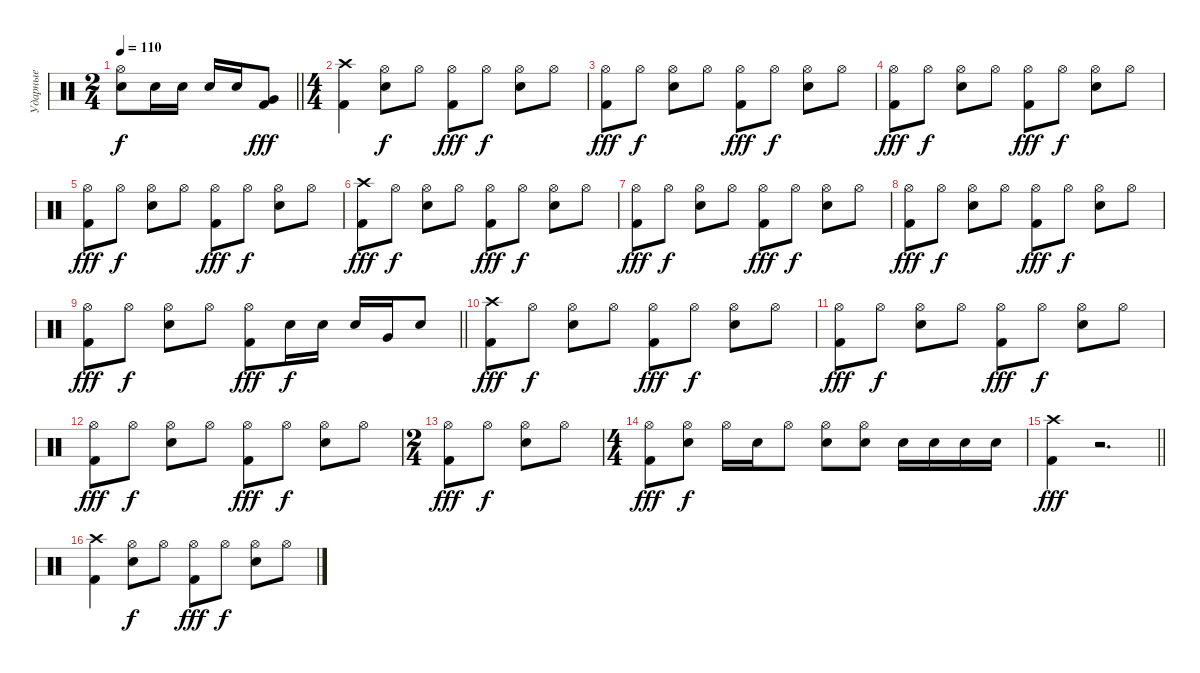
\track ("Ударные" "Ударные") {instrument percussion}
\staff
\articulation defaults
\ts (2 4)
\tempo 110
\clef neutral
\barLineRight lightlight
\ks c
("Hi-Hat (open)" "Snare (hit) 2").8{dy f} "Snare (hit) 2".16 "Snare (hit) 2".16 "Snare (hit) 2".16 "Snare (hit) 2".16 ("Kick (hit) 2" "Very Low Tom (hit)").8{dy fff} |
\ts (4 4)
("Kick (hit) 2" "Crash high (hit)").4 ("Snare (hit) 2" "Hi-Hat (open)").8{dy f} "Hi-Hat (open)".8 ("Kick (hit) 2" "Hi-Hat (open)").8{dy fff} "Hi-Hat (open)".8{dy f} ("Snare (hit) 2" "Hi-Hat (open)").8 "Hi-Hat (open)".8 |
("Kick (hit) 2" "Hi-Hat (open)").8{dy fff} "Hi-Hat (open)".8{dy f} ("Snare (hit) 2" "Hi-Hat (open)").8 "Hi-Hat (open)".8 ("Kick (hit) 2" "Hi-Hat (open)").8{dy fff} "Hi-Hat (open)".8{dy f} ("Snare (hit) 2" "Hi-Hat (open)").8 "Hi-Hat (open)".8 |
("Kick (hit) 2" "Hi-Hat (open)").8{dy fff} "Hi-Hat (open)".8{dy f} ("Snare (hit) 2" "Hi-Hat (open)").8 "Hi-Hat (open)".8 ("Kick (hit) 2" "Hi-Hat (open)").8{dy fff} "Hi-Hat (open)".8{dy f} ("Snare (hit) 2" "Hi-Hat (open)").8 "Hi-Hat (open)".8 |
("Kick (hit) 2" "Hi-Hat (open)").8{dy fff} "Hi-Hat (open)".8{dy f} ("Snare (hit) 2" "Hi-Hat (open)").8 "Hi-Hat (open)".8 ("Kick (hit) 2" "Hi-Hat (open)").8{dy fff} "Hi-Hat (open)".8{dy f} ("Snare (hit) 2" "Hi-Hat (open)").8 "Hi-Hat (open)".8 |
("Kick (hit) 2" "Crash high (hit)").8{dy fff} "Hi-Hat (open)".8{dy f} ("Snare (hit) 2" "Hi-Hat (open)").8 "Hi-Hat (open)".8 ("Kick (hit) 2" "Hi-Hat (open)").8{dy fff} "Hi-Hat (open)".8{dy f} ("Snare (hit) 2" "Hi-Hat (open)").8 "Hi-Hat (open)".8 |
("Kick (hit) 2" "Hi-Hat (open)").8{dy fff} "Hi-Hat (open)".8{dy f} ("Snare (hit) 2" "Hi-Hat (open)").8 "Hi-Hat (open)".8 ("Kick (hit) 2" "Hi-Hat (open)").8{dy fff} "Hi-Hat (open)".8{dy f} ("Snare (hit) 2" "Hi-Hat (open)").8 "Hi-Hat (open)".8 |
("Kick (hit) 2" "Hi-Hat (open)").8{dy fff} "Hi-Hat (open)".8{dy f} ("Snare (hit) 2" "Hi-Hat (open)").8 "Hi-Hat (open)".8 ("Kick (hit) 2" "Hi-Hat (open)").8{dy fff} "Hi-Hat (open)".8{dy f} ("Snare (hit) 2" "Hi-Hat (open)").8 "Hi-Hat (open)".8 |
\barLineRight lightlight
("Kick (hit) 2" "Hi-Hat (open)").8{dy fff} "Hi-Hat (open)".8{dy f} ("Snare (hit) 2" "Hi-Hat (open)").8 "Hi-Hat (open)".8 ("Kick (hit) 2" "Hi-Hat (open)").8{dy fff} "Snare (hit) 2".16{dy f} "Snare (hit) 2".16 "Snare (hit) 2".16 "Very Low Tom (hit)".16 "Snare (hit) 2".8 |
("Kick (hit) 2" "Crash high (hit)").8{dy fff} "Hi-Hat (open)".8{dy f} ("Snare (hit) 2" "Hi-Hat (open)").8 "Hi-Hat (open)".8 ("Kick (hit) 2" "Hi-Hat (open)").8{dy fff} "Hi-Hat (open)".8{dy f} ("Snare (hit) 2" "Hi-Hat (open)").8 "Hi-Hat (open)".8 |
("Kick (hit) 2" "Hi-Hat (open)").8{dy fff} "Hi-Hat (open)".8{dy f} ("Snare (hit) 2" "Hi-Hat (open)").8 "Hi-Hat (open)".8 ("Kick (hit) 2" "Hi-Hat (open)").8{dy fff} "Hi-Hat (open)".8{dy f} ("Snare (hit) 2" "Hi-Hat (open)").8 "Hi-Hat (open)".8 |
("Kick (hit) 2" "Hi-Hat (open)").8{dy fff} "Hi-Hat (open)".8{dy f} ("Snare (hit) 2" "Hi-Hat (open)").8 "Hi-Hat (open)".8 ("Kick (hit) 2" "Hi-Hat (open)").8{dy fff} "Hi-Hat (open)".8{dy f} ("Snare (hit) 2" "Hi-Hat (open)").8 "Hi-Hat (open)".8 |
\ts (2 4)
("Kick (hit) 2" "Hi-Hat (open)").8{dy fff} "Hi-Hat (open)".8{dy f} ("Snare (hit) 2" "Hi-Hat (open)").8 "Hi-Hat (open)".8 |
\ts (4 4)
("Kick (hit) 2" "Hi-Hat (open)").8{dy fff} ("Snare (hit) 2" "Hi-Hat (open)").8{dy f} "Hi-Hat (open)".16 "Snare (hit) 2".16 "Hi-Hat (open)".8 ("Snare (hit) 2" "Hi-Hat (open)").8 ("Snare (hit) 2" "Hi-Hat (open)").8 "Snare (hit) 2".16 "Snare (hit) 2".16 "Snare (hit) 2".16 "Snare (hit) 2".16 |
\barLineRight lightlight
("Kick (hit) 2" "Crash high (hit)").4{dy fff} r.2{d} |
("Kick (hit) 2" "Crash high (hit)").4 ("Snare (hit) 2" "Hi-Hat (open)").8{dy f} "Hi-Hat (open)".8 ("Kick (hit) 2" "Hi-Hat (open)").8{dy fff} "Hi-Hat (open)".8{dy f} ("Snare (hit) 2" "Hi-Hat (open)").8 "Hi-Hat (open)".8
